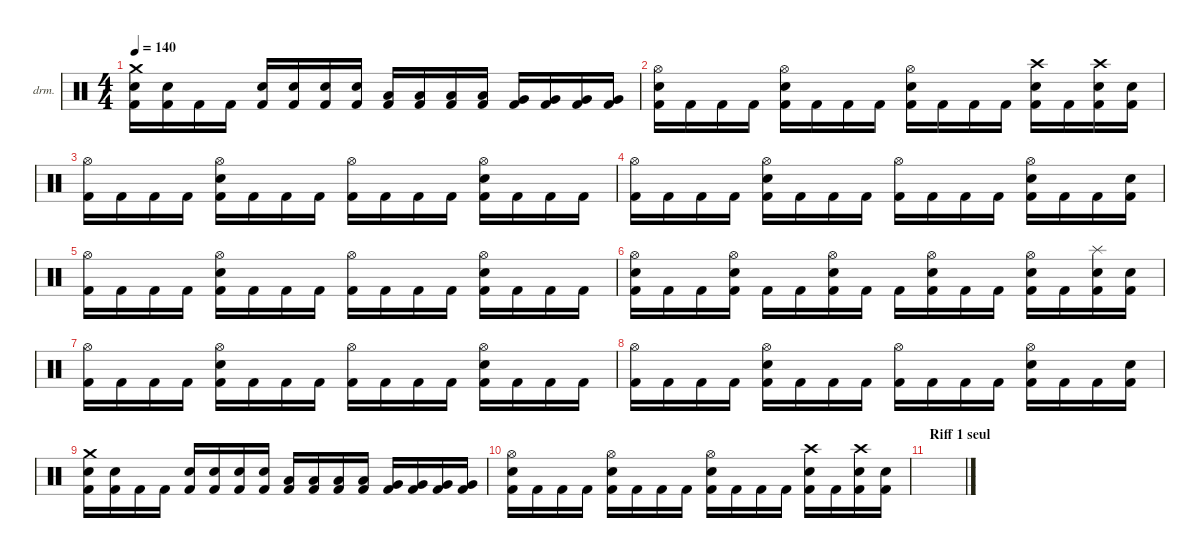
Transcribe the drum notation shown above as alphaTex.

\defaultSystemsLayout 4
\hideDynamics
\bracketExtendMode nobrackets
\firstSystemTrackNameOrientation horizontal
\otherSystemsTrackNameOrientation horizontal
\track ("Drumkit" "drm.") {instrument percussion}
\staff {score}
\articulation defaults
\ts (4 4)
\tempo 140
\clef neutral
\ks c
("Crash medium (hit)" "Snare (hit) 2" "Kick (hit) 2").16{dy mf} ("Snare (hit) 2" "Kick (hit) 2").16 "Kick (hit) 2".16 "Kick (hit) 2".16 ("Snare (hit) 2" "Kick (hit) 2").16 ("Snare (hit) 2" "Kick (hit) 2").16 ("Snare (hit) 2" "Kick (hit) 2").16 ("Snare (hit) 2" "Kick (hit) 2").16 ("Low Tom (hit)" "Kick (hit) 2").16 ("Low Tom (hit)" "Kick (hit) 2").16 ("Low Tom (hit)" "Kick (hit) 2").16 ("Low Tom (hit)" "Kick (hit) 2").16 ("Very Low Tom (hit)" "Kick (hit) 2").16 ("Very Low Tom (hit)" "Kick (hit) 2").16 ("Very Low Tom (hit)" "Kick (hit) 2").16 ("Very Low Tom (hit)" "Kick (hit) 2").16 |
("Hi-Hat (open)" "Snare (hit) 2" "Kick (hit) 2").16 "Kick (hit) 2".16 "Kick (hit) 2".16 "Kick (hit) 2".16 ("Hi-Hat (open)" "Snare (hit) 2" "Kick (hit) 2").16 "Kick (hit) 2".16 "Kick (hit) 2".16 "Kick (hit) 2".16 ("Hi-Hat (open)" "Snare (hit) 2" "Kick (hit) 2").16 "Kick (hit) 2".16 "Kick (hit) 2".16 "Kick (hit) 2".16 ("Crash high (hit)" "Snare (hit) 2" "Kick (hit) 2").16 "Kick (hit) 2".16 ("Crash high (hit)" "Snare (hit) 2" "Kick (hit) 2").16 ("Snare (hit) 2" "Kick (hit) 2").16 |
("Hi-Hat (open)" "Kick (hit) 2").16{dy ff} "Kick (hit) 2".16 "Kick (hit) 2".16 "Kick (hit) 2".16 ("Hi-Hat (open)" "Snare (hit) 2" "Kick (hit) 2").16 "Kick (hit) 2".16 "Kick (hit) 2".16 "Kick (hit) 2".16 ("Hi-Hat (open)" "Kick (hit) 2").16 "Kick (hit) 2".16 "Kick (hit) 2".16 "Kick (hit) 2".16 ("Hi-Hat (open)" "Snare (hit) 2" "Kick (hit) 2").16 "Kick (hit) 2".16 "Kick (hit) 2".16 "Kick (hit) 2".16 |
("Hi-Hat (open)" "Kick (hit) 2").16 "Kick (hit) 2".16 "Kick (hit) 2".16 "Kick (hit) 2".16 ("Hi-Hat (open)" "Snare (hit) 2" "Kick (hit) 2").16 "Kick (hit) 2".16 "Kick (hit) 2".16 "Kick (hit) 2".16 ("Hi-Hat (open)" "Kick (hit) 2").16 "Kick (hit) 2".16 "Kick (hit) 2".16 "Kick (hit) 2".16 ("Hi-Hat (open)" "Snare (hit) 2" "Kick (hit) 2").16 "Kick (hit) 2".16 "Kick (hit) 2".16 ("Snare (hit) 2" "Kick (hit) 2").16 |
("Hi-Hat (open)" "Kick (hit) 2").16 "Kick (hit) 2".16 "Kick (hit) 2".16 "Kick (hit) 2".16 ("Hi-Hat (open)" "Snare (hit) 2" "Kick (hit) 2").16 "Kick (hit) 2".16 "Kick (hit) 2".16 "Kick (hit) 2".16 ("Hi-Hat (open)" "Kick (hit) 2").16 "Kick (hit) 2".16 "Kick (hit) 2".16 "Kick (hit) 2".16 ("Hi-Hat (open)" "Snare (hit) 2" "Kick (hit) 2").16 "Kick (hit) 2".16 "Kick (hit) 2".16 "Kick (hit) 2".16 |
("Hi-Hat (open)" "Snare (hit) 2" "Kick (hit) 2").16 "Kick (hit) 2".16 "Kick (hit) 2".16 ("Hi-Hat (open)" "Snare (hit) 2" "Kick (hit) 2").16 "Kick (hit) 2".16 "Kick (hit) 2".16 ("Hi-Hat (open)" "Snare (hit) 2" "Kick (hit) 2").16 "Kick (hit) 2".16 "Kick (hit) 2".16 ("Hi-Hat (open)" "Snare (hit) 2" "Kick (hit) 2").16 "Kick (hit) 2".16 "Kick (hit) 2".16 ("Hi-Hat (open)" "Snare (hit) 2" "Kick (hit) 2").16 "Kick (hit) 2".16 ("Splash (hit)" "Snare (hit) 2" "Kick (hit) 2").16 ("Snare (hit) 2" "Kick (hit) 2").16 |
("Hi-Hat (open)" "Kick (hit) 2").16 "Kick (hit) 2".16 "Kick (hit) 2".16 "Kick (hit) 2".16 ("Hi-Hat (open)" "Snare (hit) 2" "Kick (hit) 2").16 "Kick (hit) 2".16 "Kick (hit) 2".16 "Kick (hit) 2".16 ("Hi-Hat (open)" "Kick (hit) 2").16 "Kick (hit) 2".16 "Kick (hit) 2".16 "Kick (hit) 2".16 ("Hi-Hat (open)" "Snare (hit) 2" "Kick (hit) 2").16 "Kick (hit) 2".16 "Kick (hit) 2".16 "Kick (hit) 2".16 |
("Hi-Hat (open)" "Kick (hit) 2").16 "Kick (hit) 2".16 "Kick (hit) 2".16 "Kick (hit) 2".16 ("Hi-Hat (open)" "Snare (hit) 2" "Kick (hit) 2").16 "Kick (hit) 2".16 "Kick (hit) 2".16 "Kick (hit) 2".16 ("Hi-Hat (open)" "Kick (hit) 2").16 "Kick (hit) 2".16 "Kick (hit) 2".16 "Kick (hit) 2".16 ("Hi-Hat (open)" "Snare (hit) 2" "Kick (hit) 2").16 "Kick (hit) 2".16 "Kick (hit) 2".16 ("Snare (hit) 2" "Kick (hit) 2").16 |
("Crash medium (hit)" "Snare (hit) 2" "Kick (hit) 2").16{dy mf} ("Snare (hit) 2" "Kick (hit) 2").16 "Kick (hit) 2".16 "Kick (hit) 2".16 ("Snare (hit) 2" "Kick (hit) 2").16 ("Snare (hit) 2" "Kick (hit) 2").16 ("Snare (hit) 2" "Kick (hit) 2").16 ("Snare (hit) 2" "Kick (hit) 2").16 ("Low Tom (hit)" "Kick (hit) 2").16 ("Low Tom (hit)" "Kick (hit) 2").16 ("Low Tom (hit)" "Kick (hit) 2").16 ("Low Tom (hit)" "Kick (hit) 2").16 ("Very Low Tom (hit)" "Kick (hit) 2").16 ("Very Low Tom (hit)" "Kick (hit) 2").16 ("Very Low Tom (hit)" "Kick (hit) 2").16 ("Very Low Tom (hit)" "Kick (hit) 2").16 |
("Hi-Hat (open)" "Snare (hit) 2" "Kick (hit) 2").16 "Kick (hit) 2".16 "Kick (hit) 2".16 "Kick (hit) 2".16 ("Hi-Hat (open)" "Snare (hit) 2" "Kick (hit) 2").16 "Kick (hit) 2".16 "Kick (hit) 2".16 "Kick (hit) 2".16 ("Hi-Hat (open)" "Snare (hit) 2" "Kick (hit) 2").16 "Kick (hit) 2".16 "Kick (hit) 2".16 "Kick (hit) 2".16 ("Crash high (hit)" "Snare (hit) 2" "Kick (hit) 2").16 "Kick (hit) 2".16 ("Crash high (hit)" "Snare (hit) 2" "Kick (hit) 2").16 ("Snare (hit) 2" "Kick (hit) 2").16 |
\section ("" "Riff 1 seul")
